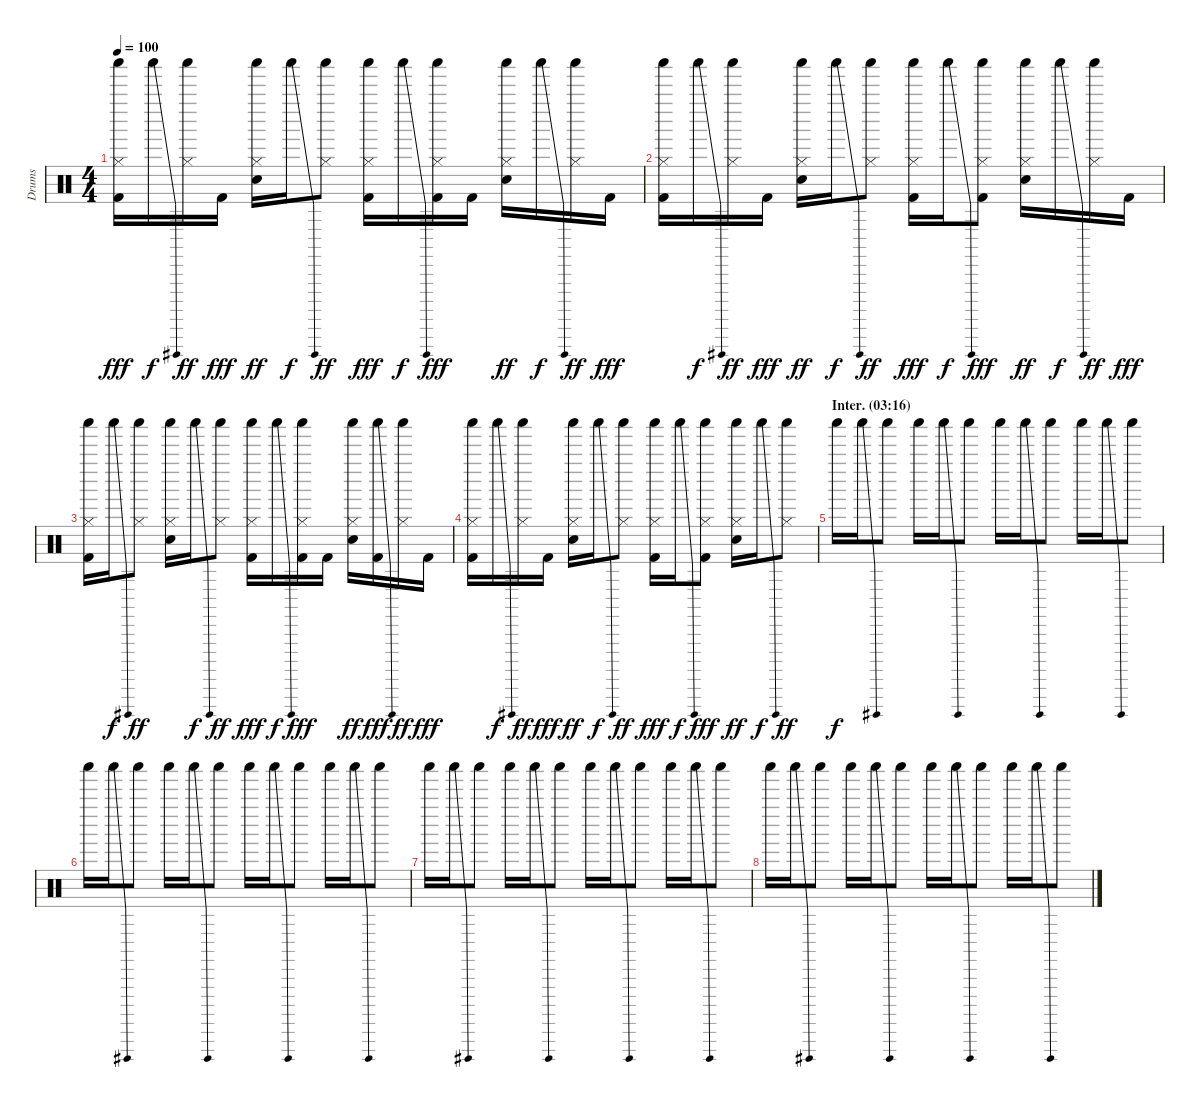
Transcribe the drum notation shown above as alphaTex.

\track ("Drums" "Drums") {instrument percussion}
\staff {score}
\articulation defaults
\ts (4 4)
\tempo 100
\clef neutral
\ks c
("Shaker (hit)" "Hi-Hat (closed)" "Kick (hit) 2").16{dy fff} "Shaker (hit)"{be (bend 0 0 60 12)}.16{dy f} ("Shaker (hit)" "Hi-Hat (closed)").16{dy ff} "Kick (hit) 2".16{dy fff} ("Shaker (hit)" "Hi-Hat (closed)" "Electric Snare (hit)").16{dy ff} "Shaker (hit)"{be (bend 0 0 60 12)}.16{dy f} ("Shaker (hit)" "Hi-Hat (closed)").8{dy ff} ("Shaker (hit)" "Hi-Hat (closed)" "Kick (hit) 2").16{dy fff} "Shaker (hit)"{be (bend 0 0 60 12)}.16{dy f} ("Shaker (hit)" "Hi-Hat (closed)" "Kick (hit) 2").16{dy fff} "Kick (hit) 2".16 ("Shaker (hit)" "Hi-Hat (closed)" "Electric Snare (hit)").16{dy ff} "Shaker (hit)"{be (bend 0 0 60 12)}.16{dy f} ("Shaker (hit)" "Hi-Hat (closed)").16{dy ff} "Kick (hit) 2".16{dy fff} |
("Shaker (hit)" "Hi-Hat (closed)" "Kick (hit) 2").16 "Shaker (hit)"{be (bend 0 0 60 12)}.16{dy f} ("Shaker (hit)" "Hi-Hat (closed)").16{dy ff} "Kick (hit) 2".16{dy fff} ("Shaker (hit)" "Hi-Hat (closed)" "Electric Snare (hit)").16{dy ff} "Shaker (hit)"{be (bend 0 0 60 12)}.16{dy f} ("Shaker (hit)" "Hi-Hat (closed)").8{dy ff} ("Shaker (hit)" "Hi-Hat (closed)" "Kick (hit) 2").16{dy fff} "Shaker (hit)"{be (bend 0 0 60 12)}.16{dy f} ("Shaker (hit)" "Hi-Hat (closed)" "Kick (hit) 2").8{dy fff} ("Shaker (hit)" "Hi-Hat (closed)" "Electric Snare (hit)").16{dy ff} "Shaker (hit)"{be (bend 0 0 60 12)}.16{dy f} ("Shaker (hit)" "Hi-Hat (closed)").16{dy ff} "Kick (hit) 2".16{dy fff} |
("Shaker (hit)" "Hi-Hat (closed)" "Kick (hit) 2").16 "Shaker (hit)"{be (bend 0 0 60 12)}.16{dy f} ("Shaker (hit)" "Hi-Hat (closed)").8{dy ff} ("Shaker (hit)" "Hi-Hat (closed)" "Electric Snare (hit)").16 "Shaker (hit)"{be (bend 0 0 60 12)}.16{dy f} ("Shaker (hit)" "Hi-Hat (closed)").8{dy ff} ("Shaker (hit)" "Hi-Hat (closed)" "Kick (hit) 2").16{dy fff} "Shaker (hit)"{be (bend 0 0 60 12)}.16{dy f} ("Shaker (hit)" "Hi-Hat (closed)" "Kick (hit) 2").16{dy fff} "Kick (hit) 2".16 ("Shaker (hit)" "Hi-Hat (closed)" "Electric Snare (hit)").16{dy ff} ("Shaker (hit)"{be (bend 0 0 60 12)} "Kick (hit) 2").16{dy fff} ("Shaker (hit)" "Hi-Hat (closed)").16{dy ff} "Kick (hit) 2".16{dy fff} |
("Shaker (hit)" "Hi-Hat (closed)" "Kick (hit) 2").16 "Shaker (hit)"{be (bend 0 0 60 12)}.16{dy f} ("Shaker (hit)" "Hi-Hat (closed)").16{dy ff} "Kick (hit) 2".16{dy fff} ("Shaker (hit)" "Hi-Hat (closed)" "Electric Snare (hit)").16{dy ff} "Shaker (hit)"{be (bend 0 0 60 12)}.16{dy f} ("Shaker (hit)" "Hi-Hat (closed)").8{dy ff} ("Shaker (hit)" "Hi-Hat (closed)" "Kick (hit) 2").16{dy fff} "Shaker (hit)"{be (bend 0 0 60 12)}.16{dy f} ("Shaker (hit)" "Hi-Hat (closed)" "Kick (hit) 2").8{dy fff} ("Shaker (hit)" "Hi-Hat (closed)" "Electric Snare (hit)").16{dy ff} "Shaker (hit)"{be (bend 0 0 60 12)}.16{dy f} ("Shaker (hit)" "Hi-Hat (closed)").8{dy ff} |
\section ("" "Inter. (03:16)")
"Shaker (hit)".16{dy f} "Shaker (hit)"{be (bend 0 0 60 12)}.16 "Shaker (hit)".8 "Shaker (hit)".16 "Shaker (hit)"{be (bend 0 0 60 12)}.16 "Shaker (hit)".8 "Shaker (hit)".16 "Shaker (hit)"{be (bend 0 0 60 12)}.16 "Shaker (hit)".8 "Shaker (hit)".16 "Shaker (hit)"{be (bend 0 0 60 12)}.16 "Shaker (hit)".8 |
"Shaker (hit)".16 "Shaker (hit)"{be (bend 0 0 60 12)}.16 "Shaker (hit)".8 "Shaker (hit)".16 "Shaker (hit)"{be (bend 0 0 60 12)}.16 "Shaker (hit)".8 "Shaker (hit)".16 "Shaker (hit)"{be (bend 0 0 60 12)}.16 "Shaker (hit)".8 "Shaker (hit)".16 "Shaker (hit)"{be (bend 0 0 60 12)}.16 "Shaker (hit)".8 |
"Shaker (hit)".16 "Shaker (hit)"{be (bend 0 0 60 12)}.16 "Shaker (hit)".8 "Shaker (hit)".16 "Shaker (hit)"{be (bend 0 0 60 12)}.16 "Shaker (hit)".8 "Shaker (hit)".16 "Shaker (hit)"{be (bend 0 0 60 12)}.16 "Shaker (hit)".8 "Shaker (hit)".16 "Shaker (hit)"{be (bend 0 0 60 12)}.16 "Shaker (hit)".8 |
"Shaker (hit)".16 "Shaker (hit)"{be (bend 0 0 60 12)}.16 "Shaker (hit)".8 "Shaker (hit)".16 "Shaker (hit)"{be (bend 0 0 60 12)}.16 "Shaker (hit)".8 "Shaker (hit)".16 "Shaker (hit)"{be (bend 0 0 60 12)}.16 "Shaker (hit)".8 "Shaker (hit)".16 "Shaker (hit)"{be (bend 0 0 60 12)}.16 "Shaker (hit)".8
